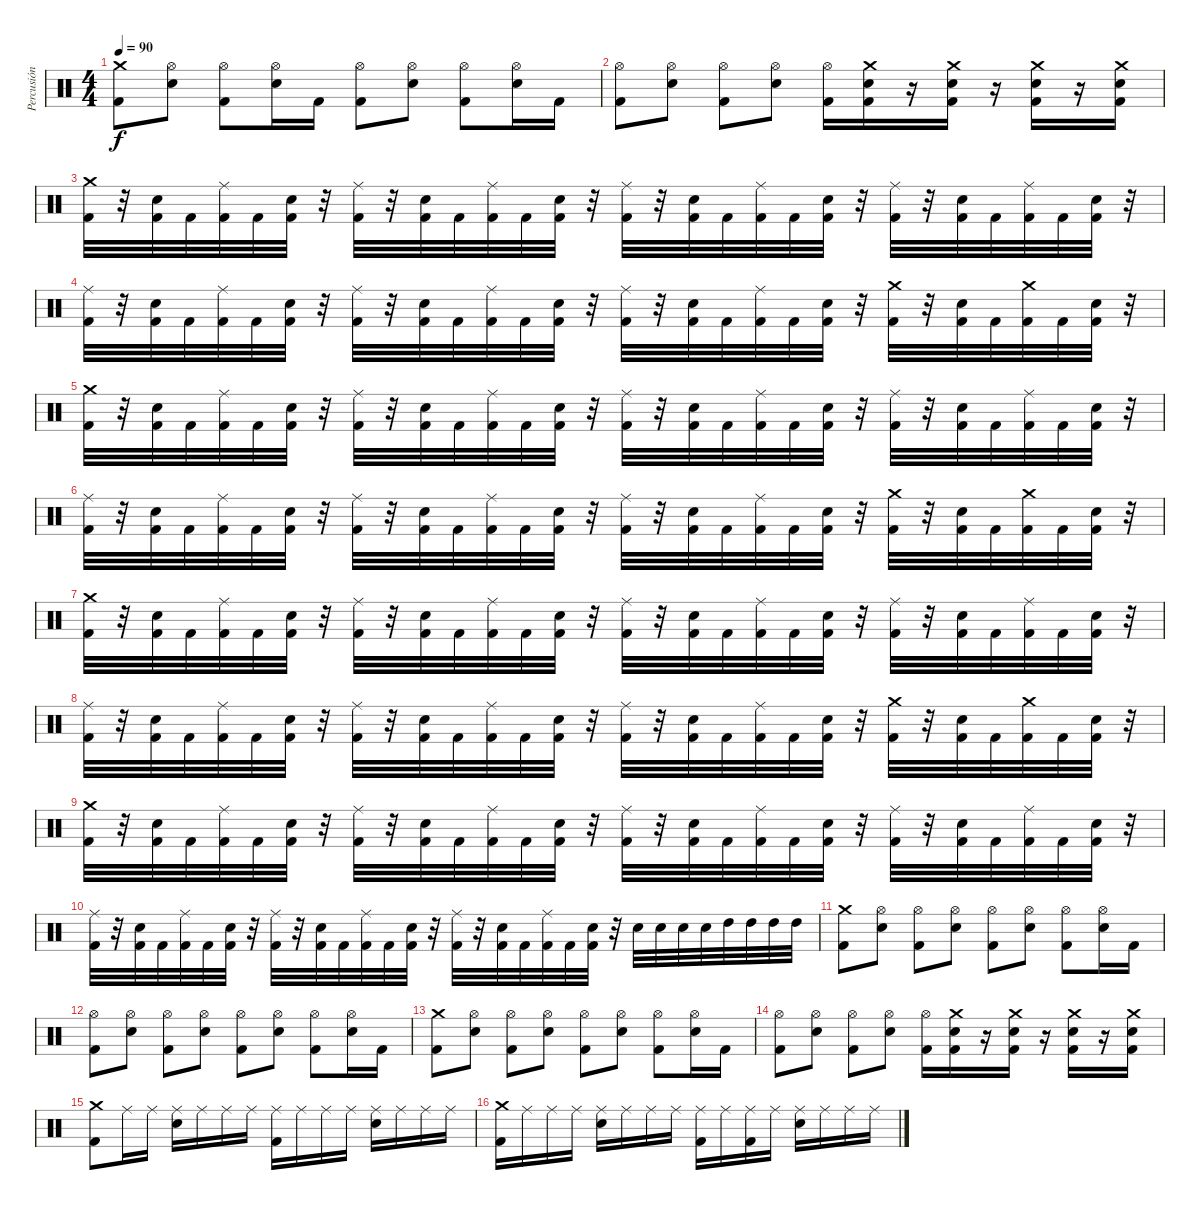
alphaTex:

\track ("Percusión" "Percusión") {instrument percussion}
\staff {score}
\articulation defaults
\ts (4 4)
\tempo 90
\clef neutral
\ks c
("Crash medium (hit)" "Kick (hit) 2").8{dy f} ("Hi-Hat (open)" "Snare (hit) 2").8 ("Hi-Hat (open)" "Kick (hit) 2").8 ("Hi-Hat (open)" "Snare (hit) 2").16 "Kick (hit) 2".16 ("Hi-Hat (open)" "Kick (hit) 2").8 ("Hi-Hat (open)" "Snare (hit) 2").8 ("Hi-Hat (open)" "Kick (hit) 2").8 ("Hi-Hat (open)" "Snare (hit) 2").16 "Kick (hit) 2".16 |
("Hi-Hat (open)" "Kick (hit) 2").8 ("Hi-Hat (open)" "Snare (hit) 2").8 ("Hi-Hat (open)" "Kick (hit) 2").8 ("Hi-Hat (open)" "Snare (hit) 2").8 ("Hi-Hat (open)" "Kick (hit) 2").16 ("Crash medium (hit)" "Snare (hit) 2" "Kick (hit) 2").16 r.16 ("Crash medium (hit)" "Snare (hit) 2" "Kick (hit) 2").16 r.16 ("Crash medium (hit)" "Snare (hit) 2" "Kick (hit) 2").16 r.16 ("Crash medium (hit)" "Snare (hit) 2" "Kick (hit) 2").16 |
("Crash medium (hit)" "Kick (hit) 2").32 r.32 ("Snare (hit) 2" "Kick (hit) 2").32 "Kick (hit) 2".32 ("Ride (middle)" "Kick (hit) 2").32 "Kick (hit) 2".32 ("Snare (hit) 2" "Kick (hit) 2").32 r.32 ("Ride (middle)" "Kick (hit) 2").32 r.32 ("Snare (hit) 2" "Kick (hit) 2").32 "Kick (hit) 2".32 ("Ride (middle)" "Kick (hit) 2").32 "Kick (hit) 2".32 ("Snare (hit) 2" "Kick (hit) 2").32 r.32 ("Ride (middle)" "Kick (hit) 2").32 r.32 ("Snare (hit) 2" "Kick (hit) 2").32 "Kick (hit) 2".32 ("Ride (middle)" "Kick (hit) 2").32 "Kick (hit) 2".32 ("Snare (hit) 2" "Kick (hit) 2").32 r.32 ("Ride (middle)" "Kick (hit) 2").32 r.32 ("Snare (hit) 2" "Kick (hit) 2").32 "Kick (hit) 2".32 ("Ride (middle)" "Kick (hit) 2").32 "Kick (hit) 2".32 ("Snare (hit) 2" "Kick (hit) 2").32 r.32 |
("Ride (middle)" "Kick (hit) 2").32 r.32 ("Snare (hit) 2" "Kick (hit) 2").32 "Kick (hit) 2".32 ("Ride (middle)" "Kick (hit) 2").32 "Kick (hit) 2".32 ("Snare (hit) 2" "Kick (hit) 2").32 r.32 ("Ride (middle)" "Kick (hit) 2").32 r.32 ("Snare (hit) 2" "Kick (hit) 2").32 "Kick (hit) 2".32 ("Ride (middle)" "Kick (hit) 2").32 "Kick (hit) 2".32 ("Snare (hit) 2" "Kick (hit) 2").32 r.32 ("Ride (middle)" "Kick (hit) 2").32 r.32 ("Snare (hit) 2" "Kick (hit) 2").32 "Kick (hit) 2".32 ("Ride (middle)" "Kick (hit) 2").32 "Kick (hit) 2".32 ("Snare (hit) 2" "Kick (hit) 2").32 r.32 ("Crash medium (hit)" "Kick (hit) 2").32 r.32 ("Snare (hit) 2" "Kick (hit) 2").32 "Kick (hit) 2".32 ("Crash medium (hit)" "Kick (hit) 2").32 "Kick (hit) 2".32 ("Snare (hit) 2" "Kick (hit) 2").32 r.32 |
("Crash medium (hit)" "Kick (hit) 2").32 r.32 ("Snare (hit) 2" "Kick (hit) 2").32 "Kick (hit) 2".32 ("Ride (middle)" "Kick (hit) 2").32 "Kick (hit) 2".32 ("Snare (hit) 2" "Kick (hit) 2").32 r.32 ("Ride (middle)" "Kick (hit) 2").32 r.32 ("Snare (hit) 2" "Kick (hit) 2").32 "Kick (hit) 2".32 ("Ride (middle)" "Kick (hit) 2").32 "Kick (hit) 2".32 ("Snare (hit) 2" "Kick (hit) 2").32 r.32 ("Ride (middle)" "Kick (hit) 2").32 r.32 ("Snare (hit) 2" "Kick (hit) 2").32 "Kick (hit) 2".32 ("Ride (middle)" "Kick (hit) 2").32 "Kick (hit) 2".32 ("Snare (hit) 2" "Kick (hit) 2").32 r.32 ("Ride (middle)" "Kick (hit) 2").32 r.32 ("Snare (hit) 2" "Kick (hit) 2").32 "Kick (hit) 2".32 ("Ride (middle)" "Kick (hit) 2").32 "Kick (hit) 2".32 ("Snare (hit) 2" "Kick (hit) 2").32 r.32 |
("Ride (middle)" "Kick (hit) 2").32 r.32 ("Snare (hit) 2" "Kick (hit) 2").32 "Kick (hit) 2".32 ("Ride (middle)" "Kick (hit) 2").32 "Kick (hit) 2".32 ("Snare (hit) 2" "Kick (hit) 2").32 r.32 ("Ride (middle)" "Kick (hit) 2").32 r.32 ("Snare (hit) 2" "Kick (hit) 2").32 "Kick (hit) 2".32 ("Ride (middle)" "Kick (hit) 2").32 "Kick (hit) 2".32 ("Snare (hit) 2" "Kick (hit) 2").32 r.32 ("Ride (middle)" "Kick (hit) 2").32 r.32 ("Snare (hit) 2" "Kick (hit) 2").32 "Kick (hit) 2".32 ("Ride (middle)" "Kick (hit) 2").32 "Kick (hit) 2".32 ("Snare (hit) 2" "Kick (hit) 2").32 r.32 ("Crash medium (hit)" "Kick (hit) 2").32 r.32 ("Snare (hit) 2" "Kick (hit) 2").32 "Kick (hit) 2".32 ("Crash medium (hit)" "Kick (hit) 2").32 "Kick (hit) 2".32 ("Snare (hit) 2" "Kick (hit) 2").32 r.32 |
("Crash medium (hit)" "Kick (hit) 2").32 r.32 ("Snare (hit) 2" "Kick (hit) 2").32 "Kick (hit) 2".32 ("Ride (middle)" "Kick (hit) 2").32 "Kick (hit) 2".32 ("Snare (hit) 2" "Kick (hit) 2").32 r.32 ("Ride (middle)" "Kick (hit) 2").32 r.32 ("Snare (hit) 2" "Kick (hit) 2").32 "Kick (hit) 2".32 ("Ride (middle)" "Kick (hit) 2").32 "Kick (hit) 2".32 ("Snare (hit) 2" "Kick (hit) 2").32 r.32 ("Ride (middle)" "Kick (hit) 2").32 r.32 ("Snare (hit) 2" "Kick (hit) 2").32 "Kick (hit) 2".32 ("Ride (middle)" "Kick (hit) 2").32 "Kick (hit) 2".32 ("Snare (hit) 2" "Kick (hit) 2").32 r.32 ("Ride (middle)" "Kick (hit) 2").32 r.32 ("Snare (hit) 2" "Kick (hit) 2").32 "Kick (hit) 2".32 ("Ride (middle)" "Kick (hit) 2").32 "Kick (hit) 2".32 ("Snare (hit) 2" "Kick (hit) 2").32 r.32 |
("Ride (middle)" "Kick (hit) 2").32 r.32 ("Snare (hit) 2" "Kick (hit) 2").32 "Kick (hit) 2".32 ("Ride (middle)" "Kick (hit) 2").32 "Kick (hit) 2".32 ("Snare (hit) 2" "Kick (hit) 2").32 r.32 ("Ride (middle)" "Kick (hit) 2").32 r.32 ("Snare (hit) 2" "Kick (hit) 2").32 "Kick (hit) 2".32 ("Ride (middle)" "Kick (hit) 2").32 "Kick (hit) 2".32 ("Snare (hit) 2" "Kick (hit) 2").32 r.32 ("Ride (middle)" "Kick (hit) 2").32 r.32 ("Snare (hit) 2" "Kick (hit) 2").32 "Kick (hit) 2".32 ("Ride (middle)" "Kick (hit) 2").32 "Kick (hit) 2".32 ("Snare (hit) 2" "Kick (hit) 2").32 r.32 ("Crash medium (hit)" "Kick (hit) 2").32 r.32 ("Snare (hit) 2" "Kick (hit) 2").32 "Kick (hit) 2".32 ("Crash medium (hit)" "Kick (hit) 2").32 "Kick (hit) 2".32 ("Snare (hit) 2" "Kick (hit) 2").32 r.32 |
("Crash medium (hit)" "Kick (hit) 2").32 r.32 ("Snare (hit) 2" "Kick (hit) 2").32 "Kick (hit) 2".32 ("Ride (middle)" "Kick (hit) 2").32 "Kick (hit) 2".32 ("Snare (hit) 2" "Kick (hit) 2").32 r.32 ("Ride (middle)" "Kick (hit) 2").32 r.32 ("Snare (hit) 2" "Kick (hit) 2").32 "Kick (hit) 2".32 ("Ride (middle)" "Kick (hit) 2").32 "Kick (hit) 2".32 ("Snare (hit) 2" "Kick (hit) 2").32 r.32 ("Ride (middle)" "Kick (hit) 2").32 r.32 ("Snare (hit) 2" "Kick (hit) 2").32 "Kick (hit) 2".32 ("Ride (middle)" "Kick (hit) 2").32 "Kick (hit) 2".32 ("Snare (hit) 2" "Kick (hit) 2").32 r.32 ("Ride (middle)" "Kick (hit) 2").32 r.32 ("Snare (hit) 2" "Kick (hit) 2").32 "Kick (hit) 2".32 ("Ride (middle)" "Kick (hit) 2").32 "Kick (hit) 2".32 ("Snare (hit) 2" "Kick (hit) 2").32 r.32 |
("Ride (middle)" "Kick (hit) 2").32 r.32 ("Snare (hit) 2" "Kick (hit) 2").32 "Kick (hit) 2".32 ("Ride (middle)" "Kick (hit) 2").32 "Kick (hit) 2".32 ("Snare (hit) 2" "Kick (hit) 2").32 r.32 ("Ride (middle)" "Kick (hit) 2").32 r.32 ("Snare (hit) 2" "Kick (hit) 2").32 "Kick (hit) 2".32 ("Ride (middle)" "Kick (hit) 2").32 "Kick (hit) 2".32 ("Snare (hit) 2" "Kick (hit) 2").32 r.32 ("Ride (middle)" "Kick (hit) 2").32 r.32 ("Snare (hit) 2" "Kick (hit) 2").32 "Kick (hit) 2".32 ("Ride (middle)" "Kick (hit) 2").32 "Kick (hit) 2".32 ("Snare (hit) 2" "Kick (hit) 2").32 r.32 "Snare (hit) 2".32 "Snare (hit) 2".32 "Snare (hit) 2".32 "Snare (hit) 2".32 "High Tom (hit)".32 "High Tom (hit)".32 "High Tom (hit)".32 "High Tom (hit)".32 |
("Crash medium (hit)" "Kick (hit) 2").8 ("Hi-Hat (open)" "Snare (hit) 2").8 ("Hi-Hat (open)" "Kick (hit) 2").8 ("Hi-Hat (open)" "Snare (hit) 2").8 ("Hi-Hat (open)" "Kick (hit) 2").8 ("Hi-Hat (open)" "Snare (hit) 2").8 ("Hi-Hat (open)" "Kick (hit) 2").8 ("Hi-Hat (open)" "Snare (hit) 2").16 "Kick (hit) 2".16 |
("Hi-Hat (open)" "Kick (hit) 2").8 ("Hi-Hat (open)" "Snare (hit) 2").8 ("Hi-Hat (open)" "Kick (hit) 2").8 ("Hi-Hat (open)" "Snare (hit) 2").8 ("Hi-Hat (open)" "Kick (hit) 2").8 ("Hi-Hat (open)" "Snare (hit) 2").8 ("Hi-Hat (open)" "Kick (hit) 2").8 ("Hi-Hat (open)" "Snare (hit) 2").16 "Kick (hit) 2".16 |
("Crash medium (hit)" "Kick (hit) 2").8 ("Hi-Hat (open)" "Snare (hit) 2").8 ("Hi-Hat (open)" "Kick (hit) 2").8 ("Hi-Hat (open)" "Snare (hit) 2").8 ("Hi-Hat (open)" "Kick (hit) 2").8 ("Hi-Hat (open)" "Snare (hit) 2").8 ("Hi-Hat (open)" "Kick (hit) 2").8 ("Hi-Hat (open)" "Snare (hit) 2").16 "Kick (hit) 2".16 |
("Hi-Hat (open)" "Kick (hit) 2").8 ("Hi-Hat (open)" "Snare (hit) 2").8 ("Hi-Hat (open)" "Kick (hit) 2").8 ("Hi-Hat (open)" "Snare (hit) 2").8 ("Hi-Hat (open)" "Kick (hit) 2").16 ("Crash medium (hit)" "Snare (hit) 2" "Kick (hit) 2").16 r.16 ("Crash medium (hit)" "Snare (hit) 2" "Kick (hit) 2").16 r.16 ("Crash medium (hit)" "Snare (hit) 2" "Kick (hit) 2").16 r.16 ("Crash medium (hit)" "Snare (hit) 2" "Kick (hit) 2").16 |
("Crash medium (hit)" "Kick (hit) 2").8 "Ride (middle)".16 "Ride (middle)".16 ("Ride (middle)" "Snare (hit) 2").16 "Ride (middle)".16 "Ride (middle)".16 "Ride (middle)".16 ("Ride (middle)" "Kick (hit) 2").16 "Ride (middle)".16 "Ride (middle)".16 "Ride (middle)".16 ("Ride (middle)" "Snare (hit) 2").16 "Ride (middle)".16 "Ride (middle)".16 "Ride (middle)".16 |
("Crash medium (hit)" "Kick (hit) 2").16 "Ride (middle)".16 "Ride (middle)".16 "Ride (middle)".16 ("Ride (middle)" "Snare (hit) 2").16 "Ride (middle)".16 "Ride (middle)".16 "Ride (middle)".16 ("Ride (middle)" "Kick (hit) 2").16 "Ride (middle)".16 ("Ride (middle)" "Kick (hit) 2").16 "Ride (middle)".16 ("Ride (middle)" "Snare (hit) 2").16 "Ride (middle)".16 "Ride (middle)".16 "Ride (middle)".16
